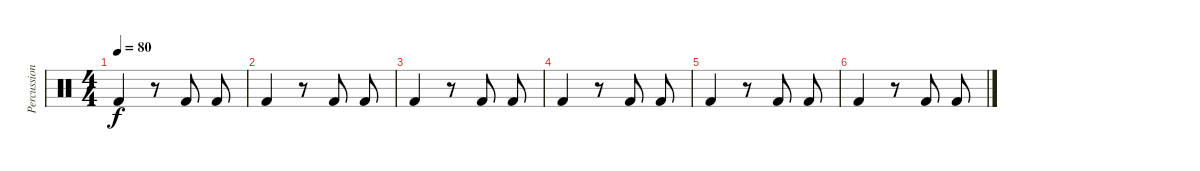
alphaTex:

\track ("Percussion" "Percussion") {instrument percussion}
\staff {score}
\articulation defaults
\ts (4 4)
\tempo 80
\clef neutral
\ks c "Kick (hit) 2".4{dy f}
r.8 "Kick (hit) 2".8 "Kick (hit) 2".8 |
"Kick (hit) 2".4 r.8 "Kick (hit) 2".8 "Kick (hit) 2".8 |
"Kick (hit) 2".4 r.8 "Kick (hit) 2".8 "Kick (hit) 2".8 |
"Kick (hit) 2".4 r.8 "Kick (hit) 2".8 "Kick (hit) 2".8 |
"Kick (hit) 2".4 r.8 "Kick (hit) 2".8 "Kick (hit) 2".8 |
"Kick (hit) 2".4 r.8 "Kick (hit) 2".8 "Kick (hit) 2".8
